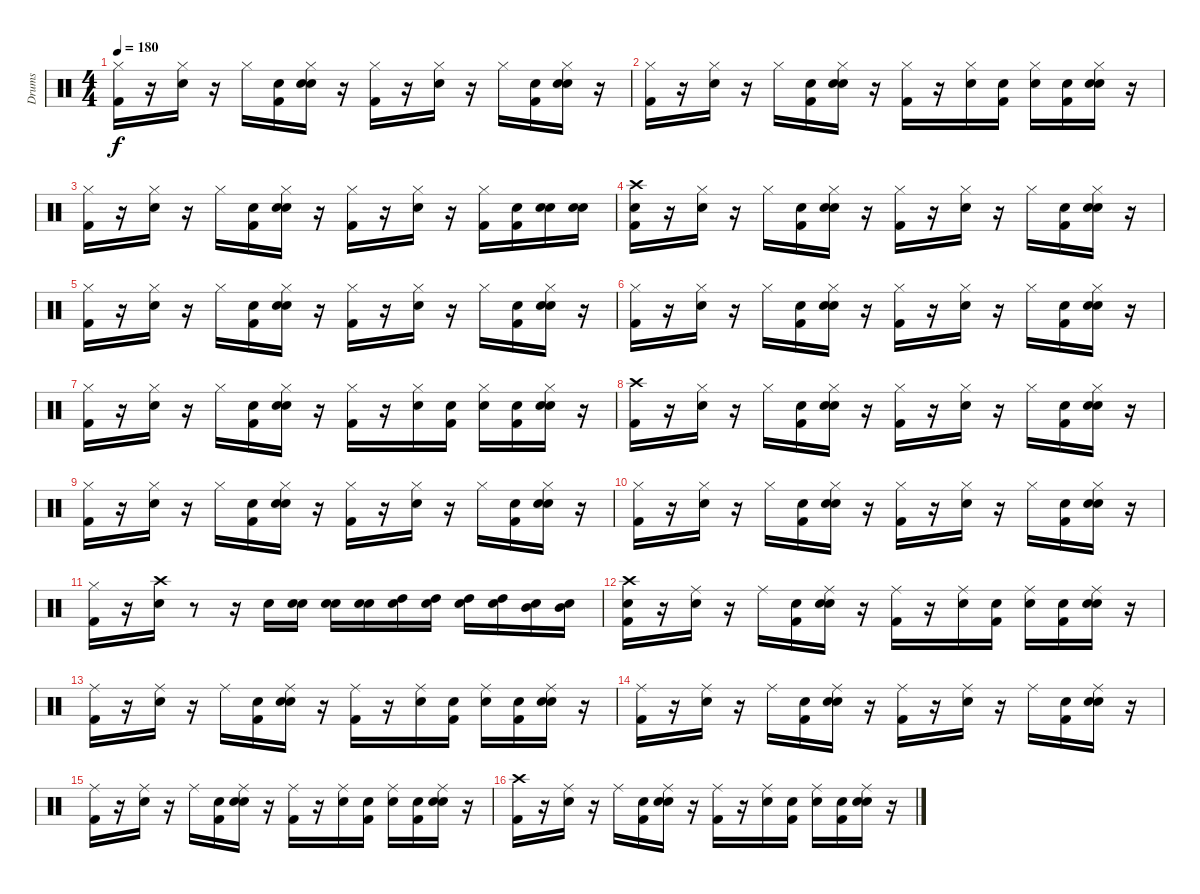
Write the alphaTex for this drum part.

\track ("Drums" "Drums") {instrument percussion}
\staff {score}
\articulation defaults
\ts (4 4)
\tempo 180
\clef neutral
\ks c
("Kick (hit) 2" "Hi-Hat (closed)").16{dy f} r.16 ("Snare (hit) 2" "Hi-Hat (closed)").16 r.16 "Hi-Hat (closed)".16 ("Snare (hit)" "Kick (hit) 2").16 ("Snare (hit)" "Snare (hit) 2" "Hi-Hat (closed)").16 r.16 ("Kick (hit) 2" "Hi-Hat (closed)").16 r.16 ("Snare (hit) 2" "Hi-Hat (closed)").16 r.16 "Hi-Hat (closed)".16 ("Snare (hit)" "Kick (hit) 2").16 ("Snare (hit)" "Snare (hit) 2" "Hi-Hat (closed)").16 r.16 |
("Kick (hit) 2" "Hi-Hat (closed)").16 r.16 ("Snare (hit) 2" "Hi-Hat (closed)").16 r.16 "Hi-Hat (closed)".16 ("Snare (hit)" "Kick (hit) 2").16 ("Snare (hit)" "Snare (hit) 2" "Hi-Hat (closed)").16 r.16 ("Hi-Hat (closed)" "Kick (hit) 2").16 r.16 ("Snare (hit) 2" "Hi-Hat (closed)").16 ("Snare (hit)" "Kick (hit) 2").16 ("Snare (hit)" "Hi-Hat (closed)").16 ("Snare (hit)" "Kick (hit) 2").16 ("Snare (hit)" "Snare (hit) 2" "Hi-Hat (closed)").16 r.16 |
("Kick (hit) 2" "Hi-Hat (closed)").16 r.16 ("Snare (hit) 2" "Hi-Hat (closed)").16 r.16 "Hi-Hat (closed)".16 ("Snare (hit)" "Kick (hit) 2").16 ("Snare (hit)" "Snare (hit) 2" "Hi-Hat (closed)").16 r.16 ("Kick (hit) 2" "Hi-Hat (closed)").16 r.16 ("Snare (hit) 2" "Hi-Hat (closed)").16 r.16 ("Kick (hit) 2" "Hi-Hat (closed)").16 ("Snare (hit)" "Kick (hit) 2").16 ("Snare (hit)" "Snare (hit) 2").16 ("Snare (hit)" "Snare (hit) 2").16 |
("Snare (hit)" "Kick (hit) 2" "Crash high (hit)").16 r.16 ("Snare (hit) 2" "Hi-Hat (closed)").16 r.16 "Hi-Hat (closed)".16 ("Snare (hit)" "Kick (hit) 2").16 ("Snare (hit)" "Snare (hit) 2" "Hi-Hat (closed)").16 r.16 ("Kick (hit) 2" "Hi-Hat (closed)").16 r.16 ("Snare (hit) 2" "Hi-Hat (closed)").16 r.16 "Hi-Hat (closed)".16 ("Snare (hit)" "Kick (hit) 2").16 ("Snare (hit)" "Snare (hit) 2" "Hi-Hat (closed)").16 r.16 |
("Kick (hit) 2" "Hi-Hat (closed)").16 r.16 ("Snare (hit) 2" "Hi-Hat (closed)").16 r.16 "Hi-Hat (closed)".16 ("Snare (hit)" "Kick (hit) 2").16 ("Snare (hit)" "Snare (hit) 2" "Hi-Hat (closed)").16 r.16 ("Kick (hit) 2" "Hi-Hat (closed)").16 r.16 ("Snare (hit) 2" "Hi-Hat (closed)").16 r.16 "Hi-Hat (closed)".16 ("Snare (hit)" "Kick (hit) 2").16 ("Snare (hit)" "Snare (hit) 2" "Hi-Hat (closed)").16 r.16 |
("Kick (hit) 2" "Hi-Hat (closed)").16 r.16 ("Snare (hit) 2" "Hi-Hat (closed)").16 r.16 "Hi-Hat (closed)".16 ("Snare (hit)" "Kick (hit) 2").16 ("Snare (hit)" "Snare (hit) 2" "Hi-Hat (closed)").16 r.16 ("Kick (hit) 2" "Hi-Hat (closed)").16 r.16 ("Snare (hit) 2" "Hi-Hat (closed)").16 r.16 "Hi-Hat (closed)".16 ("Snare (hit)" "Kick (hit) 2").16 ("Snare (hit)" "Snare (hit) 2" "Hi-Hat (closed)").16 r.16 |
("Kick (hit) 2" "Hi-Hat (closed)").16 r.16 ("Snare (hit) 2" "Hi-Hat (closed)").16 r.16 "Hi-Hat (closed)".16 ("Snare (hit)" "Kick (hit) 2").16 ("Snare (hit)" "Snare (hit) 2" "Hi-Hat (closed)").16 r.16 ("Kick (hit) 2" "Hi-Hat (closed)").16 r.16 ("Snare (hit) 2" "Hi-Hat (closed)").16 ("Snare (hit)" "Kick (hit) 2").16 ("Snare (hit)" "Hi-Hat (closed)").16 ("Snare (hit)" "Kick (hit) 2").16 ("Snare (hit)" "Snare (hit) 2" "Hi-Hat (closed)").16 r.16 |
("Kick (hit) 2" "Crash high (hit)").16 r.16 ("Snare (hit) 2" "Hi-Hat (closed)").16 r.16 "Hi-Hat (closed)".16 ("Snare (hit)" "Kick (hit) 2").16 ("Snare (hit)" "Snare (hit) 2" "Hi-Hat (closed)").16 r.16 ("Kick (hit) 2" "Hi-Hat (closed)").16 r.16 ("Snare (hit) 2" "Hi-Hat (closed)").16 r.16 "Hi-Hat (closed)".16 ("Snare (hit)" "Kick (hit) 2").16 ("Snare (hit)" "Snare (hit) 2" "Hi-Hat (closed)").16 r.16 |
("Kick (hit) 2" "Hi-Hat (closed)").16 r.16 ("Snare (hit) 2" "Hi-Hat (closed)").16 r.16 "Hi-Hat (closed)".16 ("Snare (hit)" "Kick (hit) 2").16 ("Snare (hit)" "Snare (hit) 2" "Hi-Hat (closed)").16 r.16 ("Kick (hit) 2" "Hi-Hat (closed)").16 r.16 ("Snare (hit) 2" "Hi-Hat (closed)").16 r.16 "Hi-Hat (closed)".16 ("Snare (hit)" "Kick (hit) 2").16 ("Snare (hit)" "Snare (hit) 2" "Hi-Hat (closed)").16 r.16 |
("Kick (hit) 2" "Hi-Hat (closed)").16 r.16 ("Snare (hit) 2" "Hi-Hat (closed)").16 r.16 "Hi-Hat (closed)".16 ("Snare (hit)" "Kick (hit) 2").16 ("Snare (hit)" "Snare (hit) 2" "Hi-Hat (closed)").16 r.16 ("Kick (hit) 2" "Hi-Hat (closed)").16 r.16 ("Snare (hit) 2" "Hi-Hat (closed)").16 r.16 "Hi-Hat (closed)".16 ("Snare (hit)" "Kick (hit) 2").16 ("Snare (hit)" "Snare (hit) 2" "Hi-Hat (closed)").16 r.16 |
("Kick (hit) 2" "Hi-Hat (closed)").16 r.16 ("Snare (hit) 2" "Crash high (hit)").16 r.8 r.16 "Snare (hit) 2".16 ("Snare (hit)" "Snare (hit) 2").16 ("Snare (hit)" "Snare (hit) 2").16 ("Snare (hit)" "Snare (hit) 2").16 ("Snare (hit)" "High Tom (hit)").16 ("Snare (hit)" "High Tom (hit)").16 ("Snare (hit)" "High Tom (hit)").16 ("Snare (hit)" "High Tom (hit)").16 ("Snare (hit)" "Mid Tom (hit)").16 ("Snare (hit)" "Mid Tom (hit)").16 |
("Snare (hit)" "Crash high (hit)" "Kick (hit) 2").16 r.16 ("Snare (hit) 2" "Ride (middle)").16 r.16 "Ride (middle)".16 ("Snare (hit)" "Kick (hit) 2").16 ("Snare (hit)" "Snare (hit) 2" "Ride (middle)").16 r.16 ("Kick (hit) 2" "Ride (middle)").16 r.16 ("Snare (hit) 2" "Ride (middle)").16 ("Snare (hit)" "Kick (hit) 2").16 ("Snare (hit)" "Ride (middle)").16 ("Snare (hit)" "Kick (hit) 2").16 ("Snare (hit)" "Snare (hit) 2" "Ride (middle)").16 r.16 |
("Kick (hit) 2" "Ride (middle)").16 r.16 ("Snare (hit) 2" "Ride (middle)").16 r.16 "Ride (middle)".16 ("Snare (hit)" "Kick (hit) 2").16 ("Snare (hit)" "Snare (hit) 2" "Ride (middle)").16 r.16 ("Kick (hit) 2" "Ride (middle)").16 r.16 ("Snare (hit) 2" "Ride (middle)").16 ("Snare (hit)" "Kick (hit) 2").16 ("Snare (hit)" "Ride (middle)").16 ("Snare (hit)" "Kick (hit) 2").16 ("Snare (hit)" "Snare (hit) 2" "Ride (middle)").16 r.16 |
("Kick (hit) 2" "Ride (middle)").16 r.16 ("Snare (hit) 2" "Ride (middle)").16 r.16 "Ride (middle)".16 ("Snare (hit)" "Kick (hit) 2").16 ("Snare (hit)" "Snare (hit) 2" "Ride (middle)").16 r.16 ("Kick (hit) 2" "Ride (middle)").16 r.16 ("Snare (hit) 2" "Ride (middle)").16 r.16 "Ride (middle)".16 ("Snare (hit)" "Kick (hit) 2").16 ("Snare (hit)" "Snare (hit) 2" "Ride (middle)").16 r.16 |
("Kick (hit) 2" "Ride (middle)").16 r.16 ("Snare (hit) 2" "Ride (middle)").16 r.16 "Ride (middle)".16 ("Snare (hit)" "Kick (hit) 2").16 ("Snare (hit)" "Snare (hit) 2" "Ride (middle)").16 r.16 ("Kick (hit) 2" "Ride (middle)").16 r.16 ("Snare (hit) 2" "Ride (middle)").16 ("Snare (hit)" "Kick (hit) 2").16 ("Snare (hit)" "Ride (middle)").16 ("Snare (hit)" "Kick (hit) 2").16 ("Snare (hit)" "Snare (hit) 2" "Ride (middle)").16 r.16 |
("Kick (hit) 2" "Crash high (hit)").16 r.16 ("Snare (hit) 2" "Ride (middle)").16 r.16 "Ride (middle)".16 ("Snare (hit)" "Kick (hit) 2").16 ("Snare (hit)" "Snare (hit) 2" "Ride (middle)").16 r.16 ("Kick (hit) 2" "Ride (middle)").16 r.16 ("Snare (hit) 2" "Ride (middle)").16 ("Snare (hit)" "Kick (hit) 2").16 ("Snare (hit)" "Ride (middle)").16 ("Snare (hit)" "Kick (hit) 2").16 ("Snare (hit)" "Snare (hit) 2" "Ride (middle)").16 r.16
